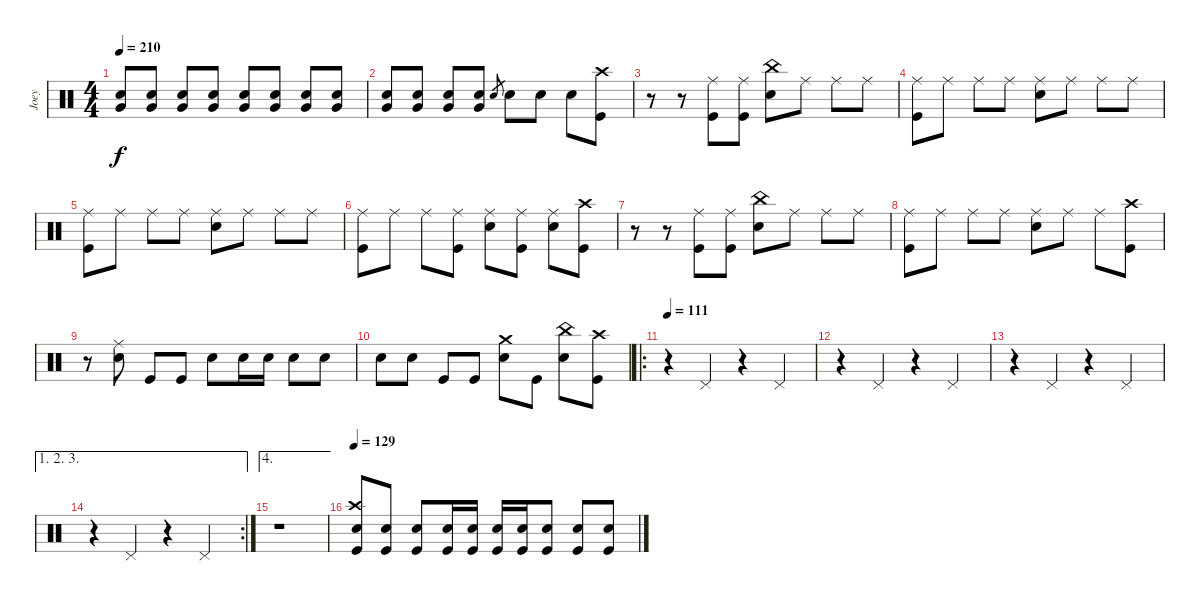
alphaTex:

\track ("Joey" "Joey") {instrument percussion}
\staff {score}
\articulation defaults
\ts (4 4)
\tempo 210
\clef neutral
\ks c
("Very Low Tom (hit)" "Snare (hit) 2").8{dy f} ("Very Low Tom (hit)" "Snare (hit) 2").8 ("Very Low Tom (hit)" "Snare (hit) 2").8 ("Very Low Tom (hit)" "Snare (hit) 2").8 ("Very Low Tom (hit)" "Snare (hit) 2").8 ("Very Low Tom (hit)" "Snare (hit) 2").8 ("Snare (hit) 2" "Very Low Tom (hit)").8 ("Very Low Tom (hit)" "Snare (hit) 2").8 |
("Very Low Tom (hit)" "Snare (hit) 2").8 ("Very Low Tom (hit)" "Snare (hit) 2").8 ("Very Low Tom (hit)" "Snare (hit) 2").8 ("Very Low Tom (hit)" "Snare (hit) 2").8 "Snare (hit) 2".8{gr} "Snare (hit) 2".8 "Snare (hit) 2".8 "Snare (hit) 2".8 ("Crash high (hit)" "Kick (hit)").8 |
r.8 r.8 ("Kick (hit)" "Ride (middle)").8 ("Kick (hit)" "Ride (middle)").8 ("Snare (hit) 2" "China (hit)").8 "Ride (middle)".8 "Ride (middle)".8 "Ride (middle)".8 |
("Ride (middle)" "Kick (hit)").8 "Ride (middle)".8 "Ride (middle)".8 "Ride (middle)".8 ("Ride (middle)" "Snare (hit) 2").8 "Ride (middle)".8 "Ride (middle)".8 "Ride (middle)".8 |
("Ride (middle)" "Kick (hit)").8 "Ride (middle)".8 "Ride (middle)".8 "Ride (middle)".8 ("Ride (middle)" "Snare (hit) 2").8 "Ride (middle)".8 "Ride (middle)".8 "Ride (middle)".8 |
("Ride (middle)" "Kick (hit)").8 "Ride (middle)".8 "Ride (middle)".8 ("Ride (middle)" "Kick (hit)").8 ("Ride (middle)" "Snare (hit) 2").8 ("Ride (middle)" "Kick (hit)").8 ("Ride (middle)" "Snare (hit) 2").8 ("Crash high (hit)" "Kick (hit)").8 |
r.8 r.8 ("Kick (hit)" "Ride (middle)").8 ("Kick (hit)" "Ride (middle)").8 ("Snare (hit) 2" "China (hit)").8 "Ride (middle)".8 "Ride (middle)".8 "Ride (middle)".8 |
("Ride (middle)" "Kick (hit)").8 "Ride (middle)".8 "Ride (middle)".8 "Ride (middle)".8 ("Ride (middle)" "Snare (hit) 2").8 "Ride (middle)".8 "Ride (middle)".8 ("Crash high (hit)" "Kick (hit)").8 |
r.8 ("Snare (hit) 2" "Ride (middle)").8 "Kick (hit)".8 "Kick (hit)".8 "Snare (hit) 2".8 "Snare (hit) 2".16 "Snare (hit) 2".16 "Snare (hit) 2".8 "Snare (hit) 2".8 |
"Snare (hit) 2".8 "Snare (hit) 2".8 "Kick (hit)".8 "Kick (hit)".8 ("Snare (hit) 2" "Crash medium (hit)").8 "Kick (hit)".8 ("Snare (hit) 2" "China (hit)").8 ("Kick (hit)" "Crash high (hit)").8 |
\ro
\tempo 111
r.4 "Pedal Hi-Hat (hit)".4 r.4 "Pedal Hi-Hat (hit)".4 |
r.4 "Pedal Hi-Hat (hit)".4 r.4 "Pedal Hi-Hat (hit)".4 |
r.4 "Pedal Hi-Hat (hit)".4 r.4 "Pedal Hi-Hat (hit)".4 |
\ae (1 2 3)
\rc 2
r.4 "Pedal Hi-Hat (hit)".4 r.4 "Pedal Hi-Hat (hit)".4 |
\ae 4
r.1 |
\tempo 129
("Snare (hit) 2" "Kick (hit)" "Crash high (hit)").8 ("Snare (hit) 2" "Kick (hit)").8 ("Snare (hit) 2" "Kick (hit)").8 ("Snare (hit) 2" "Kick (hit)").16 ("Snare (hit) 2" "Kick (hit)").16 ("Snare (hit) 2" "Kick (hit)").16 ("Snare (hit) 2" "Kick (hit)").16 ("Snare (hit) 2" "Kick (hit)").8 ("Snare (hit) 2" "Kick (hit)").8 ("Snare (hit) 2" "Kick (hit)").8
